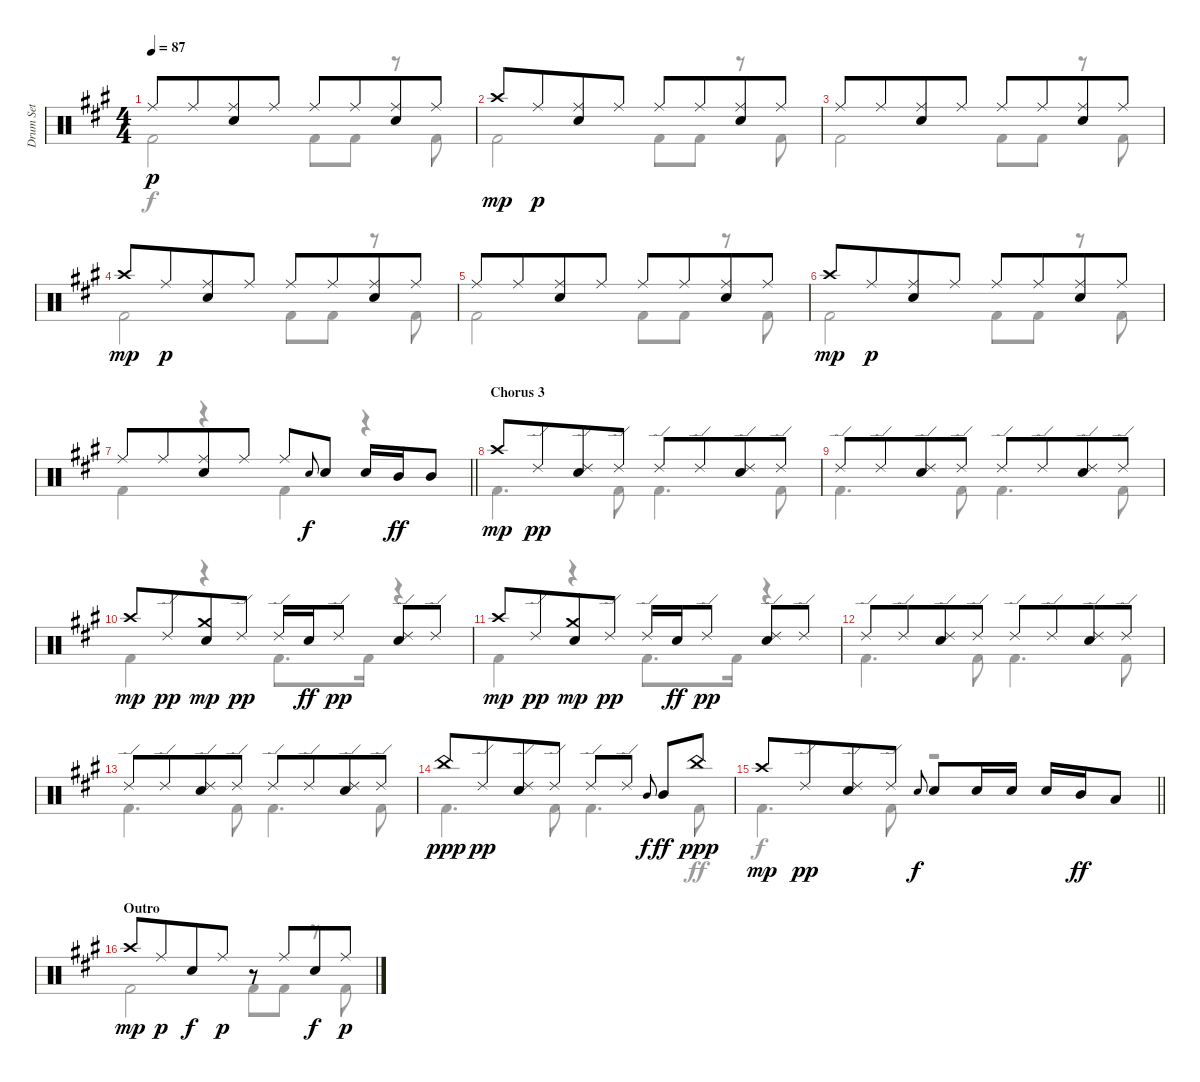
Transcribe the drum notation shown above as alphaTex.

\track ("Drum Set" "Drum Set") {instrument percussion}
\staff {score}
\articulation defaults
\voice
\ts (4 4)
\tempo 87
\clef neutral
\ks f#minor "Ride (middle)".8{dy p} "Ride (middle)".8{beam merge}
("Electric Snare (hit)" "Ride (middle)").8 "Ride (middle)".8 "Ride (middle)".8 "Ride (middle)".8{beam merge} ("Electric Snare (hit)" "Ride (middle)").8 "Ride (middle)".8 |
"Crash high (hit)".8{dy mp} "Ride (middle)".8{dy p beam merge} ("Electric Snare (hit)" "Ride (middle)").8 "Ride (middle)".8 "Ride (middle)".8 "Ride (middle)".8{beam merge} ("Electric Snare (hit)" "Ride (middle)").8 "Ride (middle)".8 |
"Ride (middle)".8 "Ride (middle)".8{beam merge} ("Electric Snare (hit)" "Ride (middle)").8 "Ride (middle)".8 "Ride (middle)".8 "Ride (middle)".8{beam merge} ("Electric Snare (hit)" "Ride (middle)").8 "Ride (middle)".8 |
"Crash high (hit)".8{dy mp} "Ride (middle)".8{dy p beam merge} ("Electric Snare (hit)" "Ride (middle)").8 "Ride (middle)".8 "Ride (middle)".8 "Ride (middle)".8{beam merge} ("Electric Snare (hit)" "Ride (middle)").8 "Ride (middle)".8 |
"Ride (middle)".8 "Ride (middle)".8{beam merge} ("Electric Snare (hit)" "Ride (middle)").8 "Ride (middle)".8 "Ride (middle)".8 "Ride (middle)".8{beam merge} ("Electric Snare (hit)" "Ride (middle)").8 "Ride (middle)".8 |
"Crash high (hit)".8{dy mp} "Ride (middle)".8{dy p beam merge} ("Electric Snare (hit)" "Ride (middle)").8 "Ride (middle)".8 "Ride (middle)".8 "Ride (middle)".8{beam merge} ("Electric Snare (hit)" "Ride (middle)").8 "Ride (middle)".8 |
\barLineRight lightlight "Ride (middle)".8 "Ride (middle)".8{beam merge}
("Electric Snare (hit)" "Ride (middle)").8 "Ride (middle)".8 "Ride (middle)".8 "Electric Snare (hit)".8{gr onbeat dy f} "Electric Snare (hit)".8 "Electric Snare (hit)".16 "Mid Tom (hit)".16{dy ff} "Mid Tom (hit)".8 |
\section ("" "Chorus 3")
"Crash high (hit)".8{dy mp} "Ride (edge) 2".8{dy pp beam merge} ("Ride (edge) 2" "Electric Snare (hit)").8 "Ride (edge) 2".8 "Ride (edge) 2".8 "Ride (edge) 2".8{beam merge} ("Ride (edge) 2" "Electric Snare (hit)").8 "Ride (edge) 2".8 |
"Ride (edge) 2".8 "Ride (edge) 2".8{beam merge} ("Ride (edge) 2" "Electric Snare (hit)").8 "Ride (edge) 2".8 "Ride (edge) 2".8 "Ride (edge) 2".8{beam merge} ("Ride (edge) 2" "Electric Snare (hit)").8 "Ride (edge) 2".8 |
"Crash high (hit)".8{dy mp} "Ride (edge) 2".8{dy pp beam merge} ("Crash medium (hit)" "Electric Snare (hit)").8{dy mp} "Ride (edge) 2".8{dy pp} "Ride (edge) 2".16 "Electric Snare (hit)".16{dy ff} "Ride (edge) 2".8{dy pp} ("Electric Snare (hit)" "Ride (edge) 2").8 "Ride (edge) 2".8 |
"Crash high (hit)".8{dy mp} "Ride (edge) 2".8{dy pp beam merge} ("Crash medium (hit)" "Electric Snare (hit)").8{dy mp} "Ride (edge) 2".8{dy pp} "Ride (edge) 2".16 "Electric Snare (hit)".16{dy ff} "Ride (edge) 2".8{dy pp} ("Electric Snare (hit)" "Ride (edge) 2").8 "Ride (edge) 2".8 |
"Ride (edge) 2".8 "Ride (edge) 2".8{beam merge} ("Ride (edge) 2" "Electric Snare (hit)").8 "Ride (edge) 2".8 "Ride (edge) 2".8 "Ride (edge) 2".8{beam merge} ("Ride (edge) 2" "Electric Snare (hit)").8 "Ride (edge) 2".8 |
"Ride (edge) 2".8 "Ride (edge) 2".8{beam merge} ("Ride (edge) 2" "Electric Snare (hit)").8 "Ride (edge) 2".8 "Ride (edge) 2".8 "Ride (edge) 2".8{beam merge} ("Ride (edge) 2" "Electric Snare (hit)").8 "Ride (edge) 2".8 |
"China (hit)".8{dy ppp} "Ride (edge) 2".8{dy pp beam merge} ("Ride (edge) 2" "Electric Snare (hit)").8 "Ride (edge) 2".8 "Ride (edge) 2".8 "Ride (edge) 2".8 "Mid Tom (hit)".8{gr onbeat dy f beam merge} "Mid Tom (hit)".8{dy ff} "China (hit)".8{dy ppp} |
\barLineRight lightlight "Crash high (hit)".8{dy mp} "Ride (edge) 2".8{dy pp beam merge}
("Ride (edge) 2" "Electric Snare (hit)").8 "Ride (edge) 2".8 "Electric Snare (hit)".8{gr onbeat dy f} "Electric Snare (hit)".8 "Electric Snare (hit)".16 "Electric Snare (hit)".16 "Electric Snare (hit)".16 "Mid Tom (hit)".16{dy ff} "Low Tom (hit)".8 |
\section ("" "Outro")
"Crash high (hit)".8{dy mp} "Ride (middle)".8{dy p beam merge} "Electric Snare (hit)".8{dy f} "Ride (middle)".8{dy p} r.8 "Ride (middle)".8{beam merge} "Electric Snare (hit)".8{dy f} "Ride (middle)".8{dy p}
\voice
\clef neutral
\ottava regular
\simile none
\ks f#minor "Kick (hit) 2".2{dy f} "Kick (hit) 2".8 "Kick (hit) 2".8
r.8 "Kick (hit) 2".8 |
"Kick (hit) 2".2 "Kick (hit) 2".8 "Kick (hit) 2".8 r.8 "Kick (hit) 2".8 |
"Kick (hit) 2".2 "Kick (hit) 2".8 "Kick (hit) 2".8 r.8 "Kick (hit) 2".8 |
"Kick (hit) 2".2 "Kick (hit) 2".8 "Kick (hit) 2".8 r.8 "Kick (hit) 2".8 |
"Kick (hit) 2".2 "Kick (hit) 2".8 "Kick (hit) 2".8 r.8 "Kick (hit) 2".8 |
"Kick (hit) 2".2 "Kick (hit) 2".8 "Kick (hit) 2".8 r.8 "Kick (hit) 2".8 |
\barLineRight lightlight "Kick (hit) 2".4
r.4 "Kick (hit) 2".4 r.4 |
"Kick (hit) 2".4{d} "Kick (hit) 2".8 "Kick (hit) 2".4{d} "Kick (hit) 2".8 |
"Kick (hit) 2".4{d} "Kick (hit) 2".8 "Kick (hit) 2".4{d} "Kick (hit) 2".8 |
"Kick (hit) 2".4 r.4 "Kick (hit) 2".8{d} "Kick (hit) 2".16 r.4 |
"Kick (hit) 2".4 r.4 "Kick (hit) 2".8{d} "Kick (hit) 2".16 r.4 |
"Kick (hit) 2".4{d} "Kick (hit) 2".8 "Kick (hit) 2".4{d} "Kick (hit) 2".8 |
"Kick (hit) 2".4{d} "Kick (hit) 2".8 "Kick (hit) 2".4{d} "Kick (hit) 2".8 |
"Kick (hit) 2".4{d} "Kick (hit) 2".8 "Kick (hit) 2".4{d} "Kick (hit) 2".8{dy ff} |
\barLineRight lightlight "Kick (hit) 2".4{d dy f} "Kick (hit) 2".8
r.2 |
"Kick (hit) 2".2 "Kick (hit) 2".8 "Kick (hit) 2".8 r.8 "Kick (hit) 2".8
